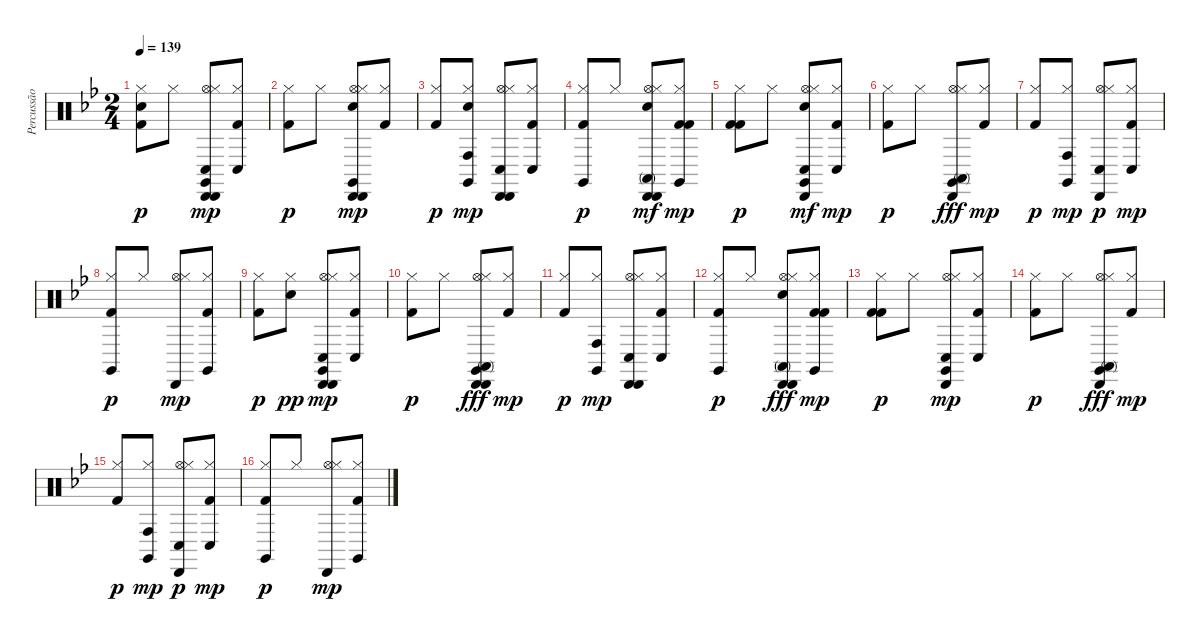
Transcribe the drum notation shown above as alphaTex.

\track ("Percussão" "Percussão") {instrument percussion}
\staff {score}
\articulation defaults
\ts (2 4)
\tempo 139
\clef neutral
\ks bb
("Electric Snare (hit)" "Kick (hit) 2" "Hi-Hat (closed)").8{dy p} "Hi-Hat (closed)".8 ("Hi-Hat (open)" "Hi-Hat (closed)" "Claves (hit)" "Conga low (hit)" "Cabasa (hit)" "Cabasa (hit)").8{dy mp} ("Hi-Hat (closed)" "Conga low (hit)" "Kick (hit) 2").8 |
("Kick (hit) 2" "Hi-Hat (closed)").8{dy p} "Hi-Hat (closed)".8 ("Hi-Hat (open)" "Hi-Hat (closed)" "Claves (hit)" "Electric Snare (hit)" "Cabasa (hit)" "Cabasa (hit)").8{dy mp} ("Hi-Hat (closed)" "Kick (hit) 2").8 |
("Kick (hit) 2" "Hi-Hat (closed)").8{dy p} ("Hi-Hat (closed)" "Claves (hit)" "Electric Snare (hit)" "Conga high (hit)").8{dy mp} ("Hi-Hat (open)" "Hi-Hat (closed)" "Conga low (hit)" "Cabasa (hit)" "Cabasa (hit)").8 ("Hi-Hat (closed)" "Conga low (hit)" "Kick (hit) 2").8 |
("Kick (hit) 2" "Claves (hit)" "Hi-Hat (closed)").8{dy p} "Hi-Hat (closed)".8 ("Hi-Hat (open)" "Hi-Hat (closed)" "Cabasa (hit)" "Cabasa (hit)" "Conga high (mute)" "Electric Snare (hit)").8{dy mf} ("Hi-Hat (closed)" "Claves (hit)" "Kick (hit) 2" "Kick (hit) 2").8{dy mp} |
("Kick (hit) 2" "Kick (hit) 2" "Hi-Hat (closed)").8{dy p} "Hi-Hat (closed)".8 ("Hi-Hat (open)" "Hi-Hat (closed)" "Claves (hit)" "Conga low (hit)" "Cabasa (hit)" "Electric Snare (hit)").8{dy mf} ("Hi-Hat (closed)" "Conga low (hit)" "Kick (hit) 2").8{dy mp} |
("Kick (hit) 2" "Hi-Hat (closed)").8{dy p} "Hi-Hat (closed)".8 ("Hi-Hat (open)" "Hi-Hat (closed)" "Claves (hit)" "Cabasa (hit)" "Conga high (mute)").8{dy fff} ("Hi-Hat (closed)" "Kick (hit) 2").8{dy mp} |
("Kick (hit) 2" "Hi-Hat (closed)").8{dy p} ("Hi-Hat (closed)" "Claves (hit)" "Conga high (hit)").8{dy mp} ("Hi-Hat (open)" "Hi-Hat (closed)" "Conga low (hit)" "Cabasa (hit)").8{dy p} ("Hi-Hat (closed)" "Conga low (hit)" "Kick (hit) 2").8{dy mp} |
("Kick (hit) 2" "Claves (hit)" "Hi-Hat (closed)").8{dy p} "Hi-Hat (closed)".8 ("Hi-Hat (open)" "Hi-Hat (closed)" "Cabasa (hit)").8{dy mp} ("Hi-Hat (closed)" "Claves (hit)" "Kick (hit) 2").8 |
("Kick (hit) 2" "Hi-Hat (closed)").8{dy p} ("Hi-Hat (closed)" "Electric Snare (hit)").8{dy pp} ("Hi-Hat (open)" "Hi-Hat (closed)" "Claves (hit)" "Conga low (hit)" "Cabasa (hit)" "Cabasa (hit)").8{dy mp} ("Hi-Hat (closed)" "Conga low (hit)" "Kick (hit) 2").8 |
("Kick (hit) 2" "Hi-Hat (closed)").8{dy p} "Hi-Hat (closed)".8 ("Hi-Hat (open)" "Hi-Hat (closed)" "Claves (hit)" "Cabasa (hit)" "Cabasa (hit)" "Conga high (mute)").8{dy fff} ("Hi-Hat (closed)" "Kick (hit) 2").8{dy mp} |
("Kick (hit) 2" "Hi-Hat (closed)").8{dy p} ("Hi-Hat (closed)" "Claves (hit)" "Conga high (hit)").8{dy mp} ("Hi-Hat (open)" "Hi-Hat (closed)" "Conga low (hit)" "Cabasa (hit)" "Cabasa (hit)").8 ("Hi-Hat (closed)" "Conga low (hit)" "Kick (hit) 2").8 |
("Kick (hit) 2" "Claves (hit)" "Hi-Hat (closed)").8{dy p} "Hi-Hat (closed)".8 ("Hi-Hat (open)" "Hi-Hat (closed)" "Electric Snare (hit)" "Cabasa (hit)" "Cabasa (hit)" "Conga high (mute)").8{dy fff} ("Hi-Hat (closed)" "Claves (hit)" "Kick (hit) 2" "Kick (hit) 2").8{dy mp} |
("Kick (hit) 2" "Kick (hit) 2" "Hi-Hat (closed)").8{dy p} "Hi-Hat (closed)".8 ("Hi-Hat (open)" "Hi-Hat (closed)" "Claves (hit)" "Conga low (hit)" "Cabasa (hit)").8{dy mp} ("Hi-Hat (closed)" "Conga low (hit)" "Kick (hit) 2").8 |
("Kick (hit) 2" "Hi-Hat (closed)").8{dy p} "Hi-Hat (closed)".8 ("Hi-Hat (open)" "Hi-Hat (closed)" "Claves (hit)" "Cabasa (hit)" "Conga high (mute)").8{dy fff} ("Hi-Hat (closed)" "Kick (hit) 2").8{dy mp} |
("Kick (hit) 2" "Hi-Hat (closed)").8{dy p} ("Hi-Hat (closed)" "Claves (hit)" "Conga high (hit)").8{dy mp} ("Hi-Hat (open)" "Hi-Hat (closed)" "Conga low (hit)" "Cabasa (hit)").8{dy p} ("Hi-Hat (closed)" "Conga low (hit)" "Kick (hit) 2").8{dy mp} |
("Kick (hit) 2" "Claves (hit)" "Hi-Hat (closed)").8{dy p} "Hi-Hat (closed)".8 ("Hi-Hat (open)" "Hi-Hat (closed)" "Cabasa (hit)").8{dy mp} ("Hi-Hat (closed)" "Claves (hit)" "Kick (hit) 2").8
